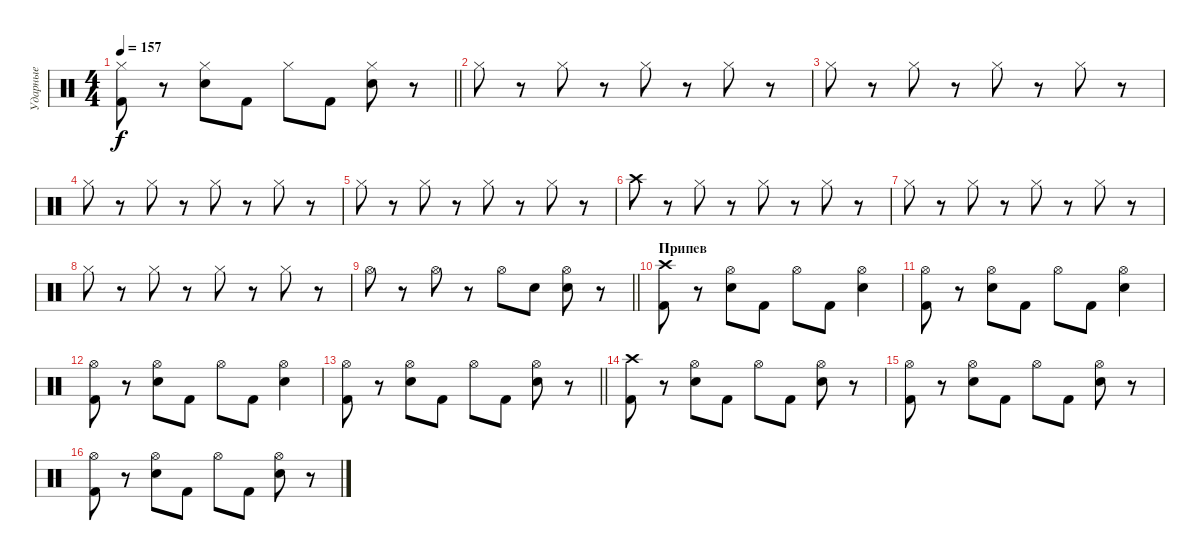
\track ("Ударные" "Ударные") {instrument percussion}
\staff {score}
\articulation defaults
\ts (4 4)
\tempo 157
\clef neutral
\barLineRight lightlight
\ks c
("Hi-Hat (closed)" "Kick (hit) 2").8{dy f} r.8 ("Hi-Hat (closed)" "Snare (hit) 2").8 "Kick (hit) 2".8 "Hi-Hat (closed)".8 "Kick (hit) 2".8 ("Hi-Hat (closed)" "Snare (hit) 2").8 r.8 |
"Hi-Hat (closed)".8 r.8 "Hi-Hat (closed)".8 r.8 "Hi-Hat (closed)".8 r.8 "Hi-Hat (closed)".8 r.8 |
"Hi-Hat (closed)".8 r.8 "Hi-Hat (closed)".8 r.8 "Hi-Hat (closed)".8 r.8 "Hi-Hat (closed)".8 r.8 |
"Hi-Hat (closed)".8 r.8 "Hi-Hat (closed)".8 r.8 "Hi-Hat (closed)".8 r.8 "Hi-Hat (closed)".8 r.8 |
"Hi-Hat (closed)".8 r.8 "Hi-Hat (closed)".8 r.8 "Hi-Hat (closed)".8 r.8 "Hi-Hat (closed)".8 r.8 |
"Crash high (hit)".8 r.8 "Hi-Hat (closed)".8 r.8 "Hi-Hat (closed)".8 r.8 "Hi-Hat (closed)".8 r.8 |
"Hi-Hat (closed)".8 r.8 "Hi-Hat (closed)".8 r.8 "Hi-Hat (closed)".8 r.8 "Hi-Hat (closed)".8 r.8 |
"Hi-Hat (closed)".8 r.8 "Hi-Hat (closed)".8 r.8 "Hi-Hat (closed)".8 r.8 "Hi-Hat (closed)".8 r.8 |
\barLineRight lightlight "Hi-Hat (open)".8
r.8 "Hi-Hat (open)".8 r.8 "Hi-Hat (open)".8 "Snare (hit) 2".8 ("Hi-Hat (open)" "Snare (hit) 2").8 r.8 |
\section ("" "Припев")
("Crash high (hit)" "Kick (hit) 2").8 r.8 ("Hi-Hat (open)" "Snare (hit) 2").8 "Kick (hit) 2".8 "Hi-Hat (open)".8 "Kick (hit) 2".8 ("Hi-Hat (open)" "Snare (hit) 2").4 |
("Hi-Hat (open)" "Kick (hit) 2").8 r.8 ("Hi-Hat (open)" "Snare (hit) 2").8 "Kick (hit) 2".8 "Hi-Hat (open)".8 "Kick (hit) 2".8 ("Hi-Hat (open)" "Snare (hit) 2").4 |
("Hi-Hat (open)" "Kick (hit) 2").8 r.8 ("Hi-Hat (open)" "Snare (hit) 2").8 "Kick (hit) 2".8 "Hi-Hat (open)".8 "Kick (hit) 2".8 ("Hi-Hat (open)" "Snare (hit) 2").4 |
\barLineRight lightlight
("Hi-Hat (open)" "Kick (hit) 2").8 r.8 ("Hi-Hat (open)" "Snare (hit) 2").8 "Kick (hit) 2".8 "Hi-Hat (open)".8 "Kick (hit) 2".8 ("Hi-Hat (open)" "Snare (hit) 2").8 r.8 |
("Crash high (hit)" "Kick (hit) 2").8 r.8 ("Hi-Hat (open)" "Snare (hit) 2").8 "Kick (hit) 2".8 "Hi-Hat (open)".8 "Kick (hit) 2".8 ("Hi-Hat (open)" "Snare (hit) 2").8 r.8 |
("Hi-Hat (open)" "Kick (hit) 2").8 r.8 ("Hi-Hat (open)" "Snare (hit) 2").8 "Kick (hit) 2".8 "Hi-Hat (open)".8 "Kick (hit) 2".8 ("Hi-Hat (open)" "Snare (hit) 2").8 r.8 |
("Hi-Hat (open)" "Kick (hit) 2").8 r.8 ("Hi-Hat (open)" "Snare (hit) 2").8 "Kick (hit) 2".8 "Hi-Hat (open)".8 "Kick (hit) 2".8 ("Hi-Hat (open)" "Snare (hit) 2").8 r.8
